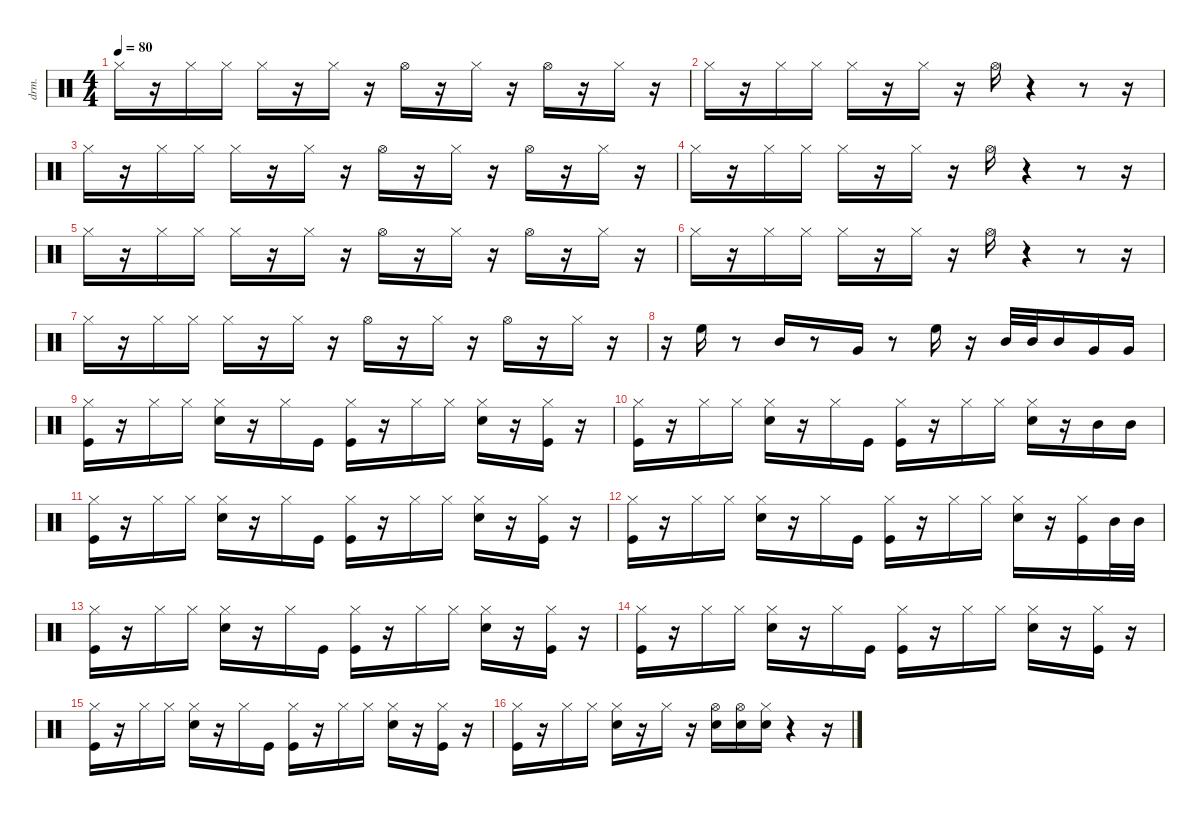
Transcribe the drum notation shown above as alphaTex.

\defaultSystemsLayout 4
\hideDynamics
\bracketExtendMode nobrackets
\track ("Percussions" "drm.") {instrument percussion}
\staff {score}
\articulation defaults
\ts (4 4)
\tempo 80
\clef neutral
\ks c "Hi-Hat (closed)".16{dy f beam Down}
r.16{beam Down} "Hi-Hat (closed)".16{beam Down} "Hi-Hat (closed)".16{beam Down} "Hi-Hat (closed)".16{beam Down} r.16{beam Down} "Hi-Hat (closed)".16{beam Down} r.16{beam Down} "Hi-Hat (open)".16{beam Down} r.16{beam Down} "Hi-Hat (closed)".16{beam Down} r.16{beam Down} "Hi-Hat (open)".16{beam Down} r.16{beam Down} "Hi-Hat (closed)".16{beam Down} r.16{beam Down} |
"Hi-Hat (closed)".16{beam Down} r.16{beam Down} "Hi-Hat (closed)".16{beam Down} "Hi-Hat (closed)".16{beam Down} "Hi-Hat (closed)".16{beam Down} r.16{beam Down} "Hi-Hat (closed)".16{beam Down} r.16{beam Down} "Hi-Hat (open)".16{beam Down} r.4{beam Down} r.8{beam Down} r.16{beam Down} |
"Hi-Hat (closed)".16{beam Down} r.16{beam Down} "Hi-Hat (closed)".16{beam Down} "Hi-Hat (closed)".16{beam Down} "Hi-Hat (closed)".16{beam Down} r.16{beam Down} "Hi-Hat (closed)".16{beam Down} r.16{beam Down} "Hi-Hat (open)".16{beam Down} r.16{beam Down} "Hi-Hat (closed)".16{beam Down} r.16{beam Down} "Hi-Hat (open)".16{beam Down} r.16{beam Down} "Hi-Hat (closed)".16{beam Down} r.16{beam Down} |
"Hi-Hat (closed)".16{beam Down} r.16{beam Down} "Hi-Hat (closed)".16{beam Down} "Hi-Hat (closed)".16{beam Down} "Hi-Hat (closed)".16{beam Down} r.16{beam Down} "Hi-Hat (closed)".16{beam Down} r.16{beam Down} "Hi-Hat (open)".16{beam Down} r.4{beam Down} r.8{beam Down} r.16{beam Down} |
"Hi-Hat (closed)".16{beam Down} r.16{beam Down} "Hi-Hat (closed)".16{beam Down} "Hi-Hat (closed)".16{beam Down} "Hi-Hat (closed)".16{beam Down} r.16{beam Down} "Hi-Hat (closed)".16{beam Down} r.16{beam Down} "Hi-Hat (open)".16{beam Down} r.16{beam Down} "Hi-Hat (closed)".16{beam Down} r.16{beam Down} "Hi-Hat (open)".16{beam Down} r.16{beam Down} "Hi-Hat (closed)".16{beam Down} r.16{beam Down} |
"Hi-Hat (closed)".16{beam Down} r.16{beam Down} "Hi-Hat (closed)".16{beam Down} "Hi-Hat (closed)".16{beam Down} "Hi-Hat (closed)".16{beam Down} r.16{beam Down} "Hi-Hat (closed)".16{beam Down} r.16{beam Down} "Hi-Hat (open)".16{beam Down} r.4{beam Down} r.8{beam Down} r.16{beam Down} |
"Hi-Hat (closed)".16{beam Down} r.16{beam Down} "Hi-Hat (closed)".16{beam Down} "Hi-Hat (closed)".16{beam Down} "Hi-Hat (closed)".16{beam Down} r.16{beam Down} "Hi-Hat (closed)".16{beam Down} r.16{beam Down} "Hi-Hat (open)".16{beam Down} r.16{beam Down} "Hi-Hat (closed)".16{beam Down} r.16{beam Down} "Hi-Hat (open)".16{beam Down} r.16{beam Down} "Hi-Hat (closed)".16{beam Down} r.16{beam Down} |
r.16{beam Down} "High Floor Tom (hit)".16{beam Down} r.8{beam Down} "Mid Tom (hit)".16{beam Up} r.8{beam Up} "Very Low Tom (hit)".16{beam Up} r.8{beam Down} "High Floor Tom (hit)".16{beam Down} r.16{beam Down} "Mid Tom (hit)".32{beam Up} "Mid Tom (hit)".32{beam Up} "Mid Tom (hit)".16{beam Up} "Very Low Tom (hit)".16{beam Up} "Very Low Tom (hit)".16{beam Up} |
("Kick (hit)" "Hi-Hat (closed)").16{beam Down} r.16{beam Down} "Hi-Hat (closed)".16{beam Down} "Hi-Hat (closed)".16{beam Down} ("Snare (hit) 2" "Hi-Hat (closed)").16{beam Down} r.16{beam Down} "Hi-Hat (closed)".16{beam Down} "Kick (hit)".16{beam Down} ("Kick (hit)" "Hi-Hat (closed)").16{beam Down} r.16{beam Down} "Hi-Hat (closed)".16{beam Down} "Hi-Hat (closed)".16{beam Down} ("Snare (hit) 2" "Hi-Hat (closed)").16{beam Down} r.16{beam Down} ("Kick (hit)" "Hi-Hat (closed)").16{beam Down} r.16{beam Down} |
("Kick (hit)" "Hi-Hat (closed)").16{beam Down} r.16{beam Down} "Hi-Hat (closed)".16{beam Down} "Hi-Hat (closed)".16{beam Down} ("Snare (hit) 2" "Hi-Hat (closed)").16{beam Down} r.16{beam Down} "Hi-Hat (closed)".16{beam Down} "Kick (hit)".16{beam Down} ("Kick (hit)" "Hi-Hat (closed)").16{beam Down} r.16{beam Down} "Hi-Hat (closed)".16{beam Down} "Hi-Hat (closed)".16{beam Down} ("Snare (hit) 2" "Hi-Hat (closed)").16{beam Down} r.16{beam Down} "Mid Tom (hit)".16{beam Down} "Mid Tom (hit)".16{beam Down} |
("Kick (hit)" "Hi-Hat (closed)").16{beam Down} r.16{beam Down} "Hi-Hat (closed)".16{beam Down} "Hi-Hat (closed)".16{beam Down} ("Snare (hit) 2" "Hi-Hat (closed)").16{beam Down} r.16{beam Down} "Hi-Hat (closed)".16{beam Down} "Kick (hit)".16{beam Down} ("Kick (hit)" "Hi-Hat (closed)").16{beam Down} r.16{beam Down} "Hi-Hat (closed)".16{beam Down} "Hi-Hat (closed)".16{beam Down} ("Snare (hit) 2" "Hi-Hat (closed)").16{beam Down} r.16{beam Down} ("Kick (hit)" "Hi-Hat (closed)").16{beam Down} r.16{beam Down} |
("Kick (hit)" "Hi-Hat (closed)").16{beam Down} r.16{beam Down} "Hi-Hat (closed)".16{beam Down} "Hi-Hat (closed)".16{beam Down} ("Snare (hit) 2" "Hi-Hat (closed)").16{beam Down} r.16{beam Down} "Hi-Hat (closed)".16{beam Down} "Kick (hit)".16{beam Down} ("Kick (hit)" "Hi-Hat (closed)").16{beam Down} r.16{beam Down} "Hi-Hat (closed)".16{beam Down} "Hi-Hat (closed)".16{beam Down} ("Snare (hit) 2" "Hi-Hat (closed)").16{beam Down} r.16{beam Down} ("Kick (hit)" "Hi-Hat (closed)").16{beam Down} "Mid Tom (hit)".32{beam Down} "Mid Tom (hit)".32{beam Down} |
("Kick (hit)" "Hi-Hat (closed)").16{beam Down} r.16{beam Down} "Hi-Hat (closed)".16{beam Down} "Hi-Hat (closed)".16{beam Down} ("Snare (hit) 2" "Hi-Hat (closed)").16{beam Down} r.16{beam Down} "Hi-Hat (closed)".16{beam Down} "Kick (hit)".16{beam Down} ("Kick (hit)" "Hi-Hat (closed)").16{beam Down} r.16{beam Down} "Hi-Hat (closed)".16{beam Down} "Hi-Hat (closed)".16{beam Down} ("Snare (hit) 2" "Hi-Hat (closed)").16{beam Down} r.16{beam Down} ("Kick (hit)" "Hi-Hat (closed)").16{beam Down} r.16{beam Down} |
("Kick (hit)" "Hi-Hat (closed)").16{beam Down} r.16{beam Down} "Hi-Hat (closed)".16{beam Down} "Hi-Hat (closed)".16{beam Down} ("Snare (hit) 2" "Hi-Hat (closed)").16{beam Down} r.16{beam Down} "Hi-Hat (closed)".16{beam Down} "Kick (hit)".16{beam Down} ("Kick (hit)" "Hi-Hat (closed)").16{beam Down} r.16{beam Down} "Hi-Hat (closed)".16{beam Down} "Hi-Hat (closed)".16{beam Down} ("Snare (hit) 2" "Hi-Hat (closed)").16{beam Down} r.16{beam Down} ("Kick (hit)" "Hi-Hat (closed)").16{beam Down} r.16{beam Down} |
("Kick (hit)" "Hi-Hat (closed)").16{beam Down} r.16{beam Down} "Hi-Hat (closed)".16{beam Down} "Hi-Hat (closed)".16{beam Down} ("Snare (hit) 2" "Hi-Hat (closed)").16{beam Down} r.16{beam Down} "Hi-Hat (closed)".16{beam Down} "Kick (hit)".16{beam Down} ("Kick (hit)" "Hi-Hat (closed)").16{beam Down} r.16{beam Down} "Hi-Hat (closed)".16{beam Down} "Hi-Hat (closed)".16{beam Down} ("Snare (hit) 2" "Hi-Hat (closed)").16{beam Down} r.16{beam Down} ("Kick (hit)" "Hi-Hat (closed)").16{beam Down} r.16{beam Down} |
("Kick (hit)" "Hi-Hat (closed)").16{beam Down} r.16{beam Down} "Hi-Hat (closed)".16{beam Down} "Hi-Hat (closed)".16{beam Down} ("Snare (hit) 2" "Hi-Hat (closed)").16{beam Down} r.16{beam Down} "Hi-Hat (closed)".16{beam Down} r.16{beam Down} ("Hi-Hat (open)" "Snare (hit) 2").16{beam Down} ("Hi-Hat (open)" "Snare (hit) 2").16{beam Down} ("Hi-Hat (closed)" "Snare (hit) 2").16{beam Down} r.4{beam Down} r.16{beam Down}
